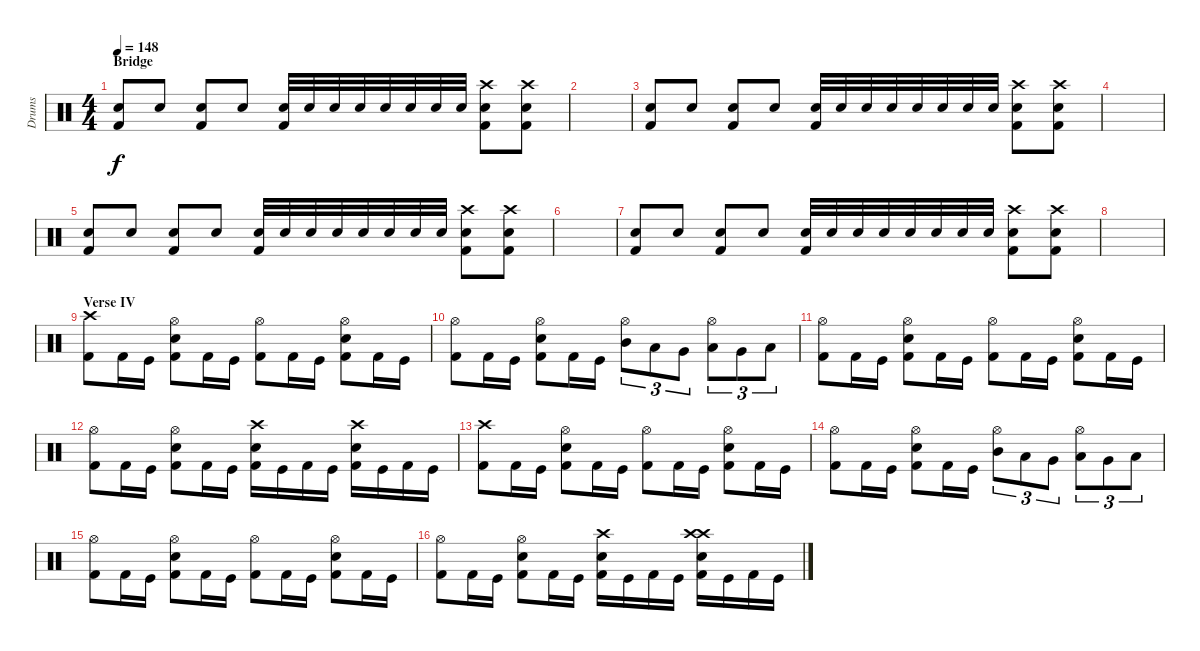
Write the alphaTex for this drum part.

\track ("Drums" "Drums") {instrument percussion}
\staff {score}
\articulation defaults
\ts (4 4)
\section ("" "Bridge")
\tempo 148
\clef neutral
\ks c
("Snare (hit) 2" "Kick (hit) 2").8{dy f} "Snare (hit) 2".8 ("Snare (hit) 2" "Kick (hit) 2").8 "Snare (hit) 2".8 ("Snare (hit) 2" "Kick (hit) 2").32 "Snare (hit) 2".32 "Snare (hit) 2".32 "Snare (hit) 2".32 "Snare (hit) 2".32 "Snare (hit) 2".32 "Snare (hit) 2".32 "Snare (hit) 2".32 ("Crash high (hit)" "Snare (hit) 2" "Kick (hit) 2").8 ("Crash high (hit)" "Snare (hit) 2" "Kick (hit) 2").8 |
|
("Snare (hit) 2" "Kick (hit) 2").8 "Snare (hit) 2".8 ("Snare (hit) 2" "Kick (hit) 2").8 "Snare (hit) 2".8 ("Snare (hit) 2" "Kick (hit) 2").32 "Snare (hit) 2".32 "Snare (hit) 2".32 "Snare (hit) 2".32 "Snare (hit) 2".32 "Snare (hit) 2".32 "Snare (hit) 2".32 "Snare (hit) 2".32 ("Crash high (hit)" "Snare (hit) 2" "Kick (hit) 2").8 ("Crash high (hit)" "Snare (hit) 2" "Kick (hit) 2").8 |
|
("Snare (hit) 2" "Kick (hit) 2").8 "Snare (hit) 2".8 ("Snare (hit) 2" "Kick (hit) 2").8 "Snare (hit) 2".8 ("Snare (hit) 2" "Kick (hit) 2").32 "Snare (hit) 2".32 "Snare (hit) 2".32 "Snare (hit) 2".32 "Snare (hit) 2".32 "Snare (hit) 2".32 "Snare (hit) 2".32 "Snare (hit) 2".32 ("Crash high (hit)" "Snare (hit) 2" "Kick (hit) 2").8 ("Crash high (hit)" "Snare (hit) 2" "Kick (hit) 2").8 |
|
("Snare (hit) 2" "Kick (hit) 2").8 "Snare (hit) 2".8 ("Snare (hit) 2" "Kick (hit) 2").8 "Snare (hit) 2".8 ("Snare (hit) 2" "Kick (hit) 2").32 "Snare (hit) 2".32 "Snare (hit) 2".32 "Snare (hit) 2".32 "Snare (hit) 2".32 "Snare (hit) 2".32 "Snare (hit) 2".32 "Snare (hit) 2".32 ("Crash high (hit)" "Snare (hit) 2" "Kick (hit) 2").8 ("Crash high (hit)" "Snare (hit) 2" "Kick (hit) 2").8 |
|
\section ("" "Verse IV")
("Crash high (hit)" "Kick (hit) 2").8 "Kick (hit) 2".16 "Kick (hit)".16 ("Hi-Hat (open)" "Snare (hit) 2" "Kick (hit) 2").8 "Kick (hit) 2".16 "Kick (hit)".16 ("Hi-Hat (open)" "Kick (hit) 2").8 "Kick (hit) 2".16 "Kick (hit)".16 ("Hi-Hat (open)" "Snare (hit) 2" "Kick (hit) 2").8 "Kick (hit) 2".16 "Kick (hit)".16 |
("Hi-Hat (open)" "Kick (hit) 2").8 "Kick (hit) 2".16 "Kick (hit)".16 ("Hi-Hat (open)" "Snare (hit) 2" "Kick (hit) 2").8 "Kick (hit) 2".16 "Kick (hit)".16 ("Hi-Hat (open)" "Mid Tom (hit)").8{tu (3 2)} "Low Tom (hit)".8{tu (3 2)} "Very Low Tom (hit)".8{tu (3 2)} ("Hi-Hat (open)" "Low Tom (hit)").8{tu (3 2)} "Very Low Tom (hit)".8{tu (3 2)} "Low Floor Tom (hit)".8{tu (3 2)} |
("Hi-Hat (open)" "Kick (hit) 2").8 "Kick (hit) 2".16 "Kick (hit)".16 ("Hi-Hat (open)" "Snare (hit) 2" "Kick (hit) 2").8 "Kick (hit) 2".16 "Kick (hit)".16 ("Hi-Hat (open)" "Kick (hit) 2").8 "Kick (hit) 2".16 "Kick (hit)".16 ("Hi-Hat (open)" "Snare (hit) 2" "Kick (hit) 2").8 "Kick (hit) 2".16 "Kick (hit)".16 |
("Hi-Hat (open)" "Kick (hit) 2").8 "Kick (hit) 2".16 "Kick (hit)".16 ("Hi-Hat (open)" "Snare (hit) 2" "Kick (hit) 2").8 "Kick (hit) 2".16 "Kick (hit)".16 ("Crash high (hit)" "Snare (hit) 2" "Kick (hit) 2").16 "Kick (hit)".16 "Kick (hit) 2".16 "Kick (hit)".16 ("Crash high (hit)" "Snare (hit) 2" "Kick (hit) 2").16 "Kick (hit)".16 "Kick (hit) 2".16 "Kick (hit)".16 |
("Crash high (hit)" "Kick (hit) 2").8 "Kick (hit) 2".16 "Kick (hit)".16 ("Hi-Hat (open)" "Snare (hit) 2" "Kick (hit) 2").8 "Kick (hit) 2".16 "Kick (hit)".16 ("Hi-Hat (open)" "Kick (hit) 2").8 "Kick (hit) 2".16 "Kick (hit)".16 ("Hi-Hat (open)" "Snare (hit) 2" "Kick (hit) 2").8 "Kick (hit) 2".16 "Kick (hit)".16 |
("Hi-Hat (open)" "Kick (hit) 2").8 "Kick (hit) 2".16 "Kick (hit)".16 ("Hi-Hat (open)" "Snare (hit) 2" "Kick (hit) 2").8 "Kick (hit) 2".16 "Kick (hit)".16 ("Hi-Hat (open)" "Mid Tom (hit)").8{tu (3 2)} "Low Tom (hit)".8{tu (3 2)} "Very Low Tom (hit)".8{tu (3 2)} ("Hi-Hat (open)" "Low Tom (hit)").8{tu (3 2)} "Very Low Tom (hit)".8{tu (3 2)} "Low Floor Tom (hit)".8{tu (3 2)} |
("Hi-Hat (open)" "Kick (hit) 2").8 "Kick (hit) 2".16 "Kick (hit)".16 ("Hi-Hat (open)" "Snare (hit) 2" "Kick (hit) 2").8 "Kick (hit) 2".16 "Kick (hit)".16 ("Hi-Hat (open)" "Kick (hit) 2").8 "Kick (hit) 2".16 "Kick (hit)".16 ("Hi-Hat (open)" "Snare (hit) 2" "Kick (hit) 2").8 "Kick (hit) 2".16 "Kick (hit)".16 |
("Hi-Hat (open)" "Kick (hit) 2").8 "Kick (hit) 2".16 "Kick (hit)".16 ("Hi-Hat (open)" "Snare (hit) 2" "Kick (hit) 2").8 "Kick (hit) 2".16 "Kick (hit)".16 ("Crash high (hit)" "Snare (hit) 2" "Kick (hit) 2").16 "Kick (hit)".16 "Kick (hit) 2".16 "Kick (hit)".16 ("Crash high (hit)" "Crash high (hit)" "Snare (hit) 2" "Kick (hit) 2").16 "Kick (hit)".16 "Kick (hit) 2".16 "Kick (hit)".16
